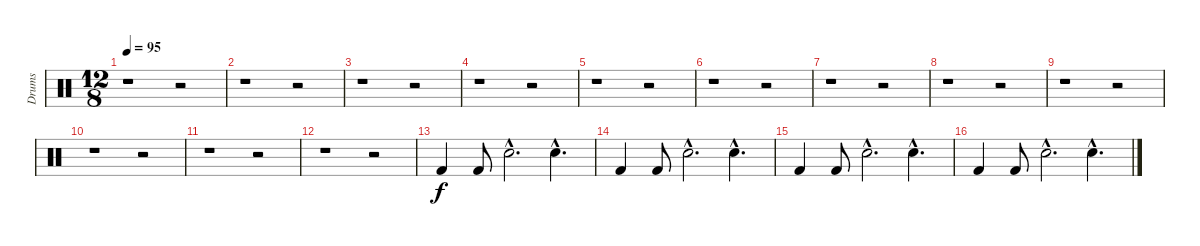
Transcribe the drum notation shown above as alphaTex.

\track ("Drums" "Drums") {instrument percussion}
\staff {score}
\articulation defaults
\ts (12 8)
\tempo 95
\clef neutral
\ks c
r.1{dy f} r.2 |
r.1 r.2 |
r.1 r.2 |
r.1 r.2 |
r.1 r.2 |
r.1 r.2 |
r.1 r.2 |
r.1 r.2 |
r.1 r.2 |
r.1 r.2 |
r.1 r.2 |
r.1 r.2 |
"Kick (hit) 2".4 "Kick (hit) 2".8 "Snare (hit) 2"{hac}.2{d} "Snare (hit) 2"{hac}.4{d} |
"Kick (hit) 2".4 "Kick (hit) 2".8 "Snare (hit) 2"{hac}.2{d} "Snare (hit) 2"{hac}.4{d} |
"Kick (hit) 2".4 "Kick (hit) 2".8 "Snare (hit) 2"{hac}.2{d} "Snare (hit) 2"{hac}.4{d} |
"Kick (hit) 2".4 "Kick (hit) 2".8 "Snare (hit) 2"{hac}.2{d} "Snare (hit) 2"{hac}.4{d}
